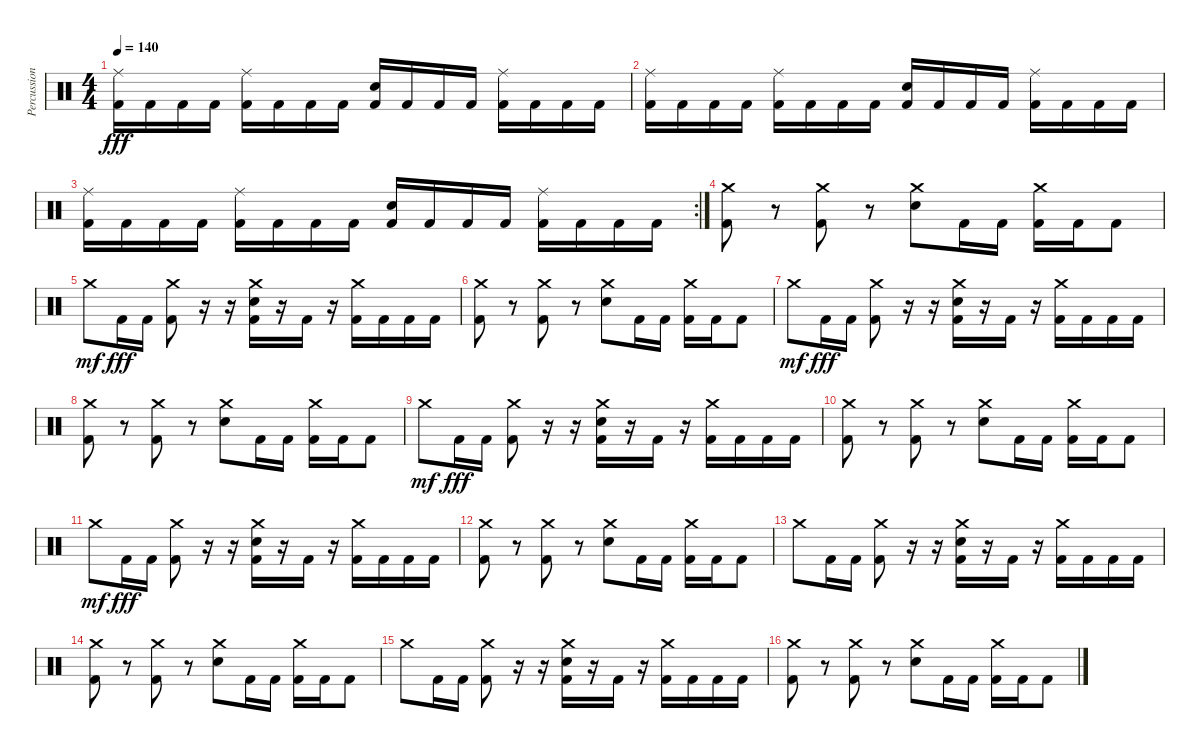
\track ("Percussion" "Percussion") {instrument percussion}
\staff {score}
\articulation defaults
\ts (4 4)
\tempo 140
\clef neutral
\ks c
("Ride (middle)" "Kick (hit) 2").16{dy fff} "Kick (hit) 2".16 "Kick (hit) 2".16 "Kick (hit) 2".16 ("Ride (middle)" "Kick (hit) 2").16 "Kick (hit) 2".16 "Kick (hit) 2".16 "Kick (hit) 2".16 ("Electric Snare (hit)" "Kick (hit) 2").16 "Kick (hit) 2".16 "Kick (hit) 2".16 "Kick (hit) 2".16 ("Ride (middle)" "Kick (hit) 2").16 "Kick (hit) 2".16 "Kick (hit) 2".16 "Kick (hit) 2".16 |
("Ride (middle)" "Kick (hit) 2").16 "Kick (hit) 2".16 "Kick (hit) 2".16 "Kick (hit) 2".16 ("Ride (middle)" "Kick (hit) 2").16 "Kick (hit) 2".16 "Kick (hit) 2".16 "Kick (hit) 2".16 ("Electric Snare (hit)" "Kick (hit) 2").16 "Kick (hit) 2".16 "Kick (hit) 2".16 "Kick (hit) 2".16 ("Ride (middle)" "Kick (hit) 2").16 "Kick (hit) 2".16 "Kick (hit) 2".16 "Kick (hit) 2".16 |
\rc 2
("Ride (middle)" "Kick (hit) 2").16 "Kick (hit) 2".16 "Kick (hit) 2".16 "Kick (hit) 2".16 ("Ride (middle)" "Kick (hit) 2").16 "Kick (hit) 2".16 "Kick (hit) 2".16 "Kick (hit) 2".16 ("Electric Snare (hit)" "Kick (hit) 2").16 "Kick (hit) 2".16 "Kick (hit) 2".16 "Kick (hit) 2".16 ("Ride (middle)" "Kick (hit) 2").16 "Kick (hit) 2".16 "Kick (hit) 2".16 "Kick (hit) 2".16 |
("Crash medium (hit)" "Kick (hit) 2").8 r.8 ("Crash medium (hit)" "Kick (hit) 2").8 r.8 ("Crash medium (hit)" "Electric Snare (hit)").8 "Kick (hit) 2".16 "Kick (hit) 2".16 ("Crash medium (hit)" "Kick (hit) 2").16 "Kick (hit) 2".16 "Kick (hit) 2".8 |
"Crash medium (hit)".8{dy mf} "Kick (hit) 2".16{dy fff} "Kick (hit) 2".16 ("Crash medium (hit)" "Kick (hit) 2").8 r.16 r.16 ("Crash medium (hit)" "Electric Snare (hit)" "Kick (hit) 2").16 r.16 "Kick (hit) 2".16 r.16 ("Crash medium (hit)" "Kick (hit) 2").16 "Kick (hit) 2".16 "Kick (hit) 2".16 "Kick (hit) 2".16 |
("Crash medium (hit)" "Kick (hit) 2").8 r.8 ("Crash medium (hit)" "Kick (hit) 2").8 r.8 ("Crash medium (hit)" "Electric Snare (hit)").8 "Kick (hit) 2".16 "Kick (hit) 2".16 ("Crash medium (hit)" "Kick (hit) 2").16 "Kick (hit) 2".16 "Kick (hit) 2".8 |
"Crash medium (hit)".8{dy mf} "Kick (hit) 2".16{dy fff} "Kick (hit) 2".16 ("Crash medium (hit)" "Kick (hit) 2").8 r.16 r.16 ("Crash medium (hit)" "Electric Snare (hit)" "Kick (hit) 2").16 r.16 "Kick (hit) 2".16 r.16 ("Crash medium (hit)" "Kick (hit) 2").16 "Kick (hit) 2".16 "Kick (hit) 2".16 "Kick (hit) 2".16 |
("Crash medium (hit)" "Kick (hit) 2").8 r.8 ("Crash medium (hit)" "Kick (hit) 2").8 r.8 ("Crash medium (hit)" "Electric Snare (hit)").8 "Kick (hit) 2".16 "Kick (hit) 2".16 ("Crash medium (hit)" "Kick (hit) 2").16 "Kick (hit) 2".16 "Kick (hit) 2".8 |
"Crash medium (hit)".8{dy mf} "Kick (hit) 2".16{dy fff} "Kick (hit) 2".16 ("Crash medium (hit)" "Kick (hit) 2").8 r.16 r.16 ("Crash medium (hit)" "Electric Snare (hit)" "Kick (hit) 2").16 r.16 "Kick (hit) 2".16 r.16 ("Crash medium (hit)" "Kick (hit) 2").16 "Kick (hit) 2".16 "Kick (hit) 2".16 "Kick (hit) 2".16 |
("Crash medium (hit)" "Kick (hit) 2").8 r.8 ("Crash medium (hit)" "Kick (hit) 2").8 r.8 ("Crash medium (hit)" "Electric Snare (hit)").8 "Kick (hit) 2".16 "Kick (hit) 2".16 ("Crash medium (hit)" "Kick (hit) 2").16 "Kick (hit) 2".16 "Kick (hit) 2".8 |
"Crash medium (hit)".8{dy mf} "Kick (hit) 2".16{dy fff} "Kick (hit) 2".16 ("Crash medium (hit)" "Kick (hit) 2").8 r.16 r.16 ("Crash medium (hit)" "Electric Snare (hit)" "Kick (hit) 2").16 r.16 "Kick (hit) 2".16 r.16 ("Crash medium (hit)" "Kick (hit) 2").16 "Kick (hit) 2".16 "Kick (hit) 2".16 "Kick (hit) 2".16 |
("Crash medium (hit)" "Kick (hit) 2").8 r.8 ("Crash medium (hit)" "Kick (hit) 2").8 r.8 ("Crash medium (hit)" "Electric Snare (hit)").8 "Kick (hit) 2".16 "Kick (hit) 2".16 ("Crash medium (hit)" "Kick (hit) 2").16 "Kick (hit) 2".16 "Kick (hit) 2".8 |
"Crash medium (hit)".8 "Kick (hit) 2".16 "Kick (hit) 2".16 ("Crash medium (hit)" "Kick (hit) 2").8 r.16 r.16 ("Crash medium (hit)" "Electric Snare (hit)" "Kick (hit) 2").16 r.16 "Kick (hit) 2".16 r.16 ("Crash medium (hit)" "Kick (hit) 2").16 "Kick (hit) 2".16 "Kick (hit) 2".16 "Kick (hit) 2".16 |
("Crash medium (hit)" "Kick (hit) 2").8 r.8 ("Crash medium (hit)" "Kick (hit) 2").8 r.8 ("Crash medium (hit)" "Electric Snare (hit)").8 "Kick (hit) 2".16 "Kick (hit) 2".16 ("Crash medium (hit)" "Kick (hit) 2").16 "Kick (hit) 2".16 "Kick (hit) 2".8 |
"Crash medium (hit)".8 "Kick (hit) 2".16 "Kick (hit) 2".16 ("Crash medium (hit)" "Kick (hit) 2").8 r.16 r.16 ("Crash medium (hit)" "Electric Snare (hit)" "Kick (hit) 2").16 r.16 "Kick (hit) 2".16 r.16 ("Crash medium (hit)" "Kick (hit) 2").16 "Kick (hit) 2".16 "Kick (hit) 2".16 "Kick (hit) 2".16 |
("Crash medium (hit)" "Kick (hit) 2").8 r.8 ("Crash medium (hit)" "Kick (hit) 2").8 r.8 ("Crash medium (hit)" "Electric Snare (hit)").8 "Kick (hit) 2".16 "Kick (hit) 2".16 ("Crash medium (hit)" "Kick (hit) 2").16 "Kick (hit) 2".16 "Kick (hit) 2".8
